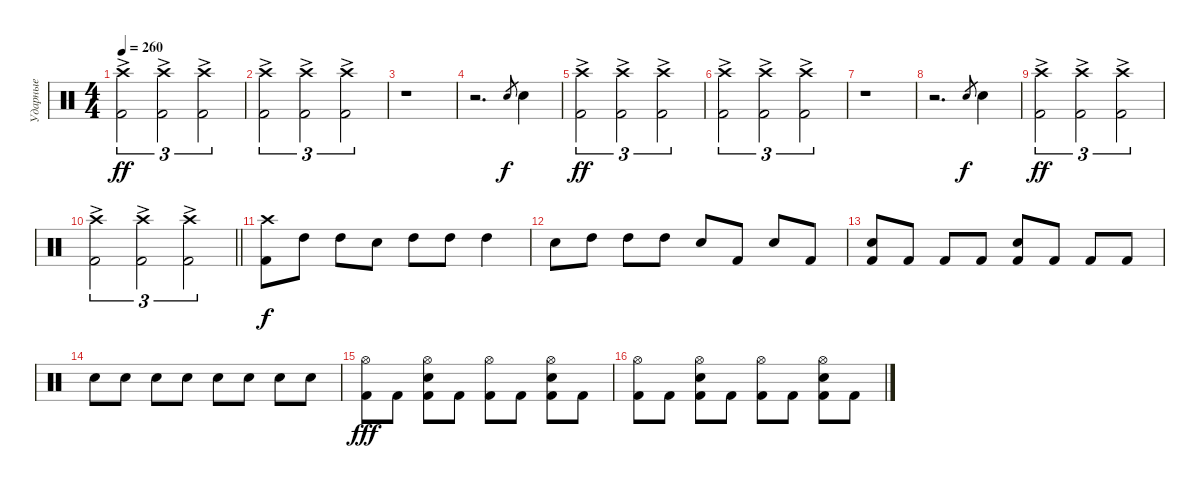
\track ("Ударные" "Ударные") {instrument percussion}
\staff {score}
\articulation defaults
\ts (4 4)
\tempo 260
\clef neutral
\ks c
("Kick (hit) 2" "Crash high (hit)"{ac}).2{tu (3 2) dy ff} ("Kick (hit) 2" "Crash high (hit)"{ac}).2{tu (3 2)} ("Kick (hit) 2" "Crash high (hit)"{ac}).2{tu (3 2)} |
("Kick (hit) 2" "Crash high (hit)"{ac}).2{tu (3 2)} ("Kick (hit) 2" "Crash high (hit)"{ac}).2{tu (3 2)} ("Kick (hit) 2" "Crash high (hit)"{ac}).2{tu (3 2)} |
r.1 |
r.2{d} "Snare (hit) 2".8{gr dy f} "Snare (hit) 2".4 |
("Kick (hit) 2" "Crash high (hit)"{ac}).2{tu (3 2) dy ff} ("Kick (hit) 2" "Crash high (hit)"{ac}).2{tu (3 2)} ("Kick (hit) 2" "Crash high (hit)"{ac}).2{tu (3 2)} |
("Kick (hit) 2" "Crash high (hit)"{ac}).2{tu (3 2)} ("Kick (hit) 2" "Crash high (hit)"{ac}).2{tu (3 2)} ("Kick (hit) 2" "Crash high (hit)"{ac}).2{tu (3 2)} |
r.1 |
r.2{d} "Snare (hit) 2".8{gr dy f} "Snare (hit) 2".4 |
("Kick (hit) 2" "Crash high (hit)"{ac}).2{tu (3 2) dy ff} ("Kick (hit) 2" "Crash high (hit)"{ac}).2{tu (3 2)} ("Kick (hit) 2" "Crash high (hit)"{ac}).2{tu (3 2)} |
\barLineRight lightlight
("Kick (hit) 2" "Crash high (hit)"{ac}).2{tu (3 2)} ("Kick (hit) 2" "Crash high (hit)"{ac}).2{tu (3 2)} ("Kick (hit) 2" "Crash high (hit)"{ac}).2{tu (3 2)} |
("Kick (hit) 2" "Crash high (hit)").8{dy f} "High Tom (hit)".8 "High Tom (hit)".8 "Snare (hit) 2".8 "High Tom (hit)".8 "High Tom (hit)".8 "High Tom (hit)".4 |
"Snare (hit) 2".8 "High Tom (hit)".8 "High Tom (hit)".8 "High Tom (hit)".8 "Snare (hit) 2".8 "Kick (hit) 2".8 "Snare (hit) 2".8 "Kick (hit) 2".8 |
("Kick (hit) 2" "Snare (hit) 2").8 "Kick (hit) 2".8 "Kick (hit) 2".8 "Kick (hit) 2".8 ("Kick (hit) 2" "Snare (hit) 2").8 "Kick (hit) 2".8 "Kick (hit) 2".8 "Kick (hit) 2".8 |
"Snare (hit) 2".8 "Snare (hit) 2".8 "Snare (hit) 2".8 "Snare (hit) 2".8 "Snare (hit) 2".8 "Snare (hit) 2".8 "Snare (hit) 2".8 "Snare (hit) 2".8 |
("Kick (hit) 2" "Hi-Hat (open)").8{dy fff} "Kick (hit) 2".8 ("Kick (hit) 2" "Snare (hit) 2" "Hi-Hat (open)").8 "Kick (hit) 2".8 ("Kick (hit) 2" "Hi-Hat (open)").8 "Kick (hit) 2".8 ("Kick (hit) 2" "Snare (hit) 2" "Hi-Hat (open)").8 "Kick (hit) 2".8 |
("Kick (hit) 2" "Hi-Hat (open)").8 "Kick (hit) 2".8 ("Kick (hit) 2" "Snare (hit) 2" "Hi-Hat (open)").8 "Kick (hit) 2".8 ("Kick (hit) 2" "Hi-Hat (open)").8 "Kick (hit) 2".8 ("Kick (hit) 2" "Snare (hit) 2" "Hi-Hat (open)").8 "Kick (hit) 2".8
